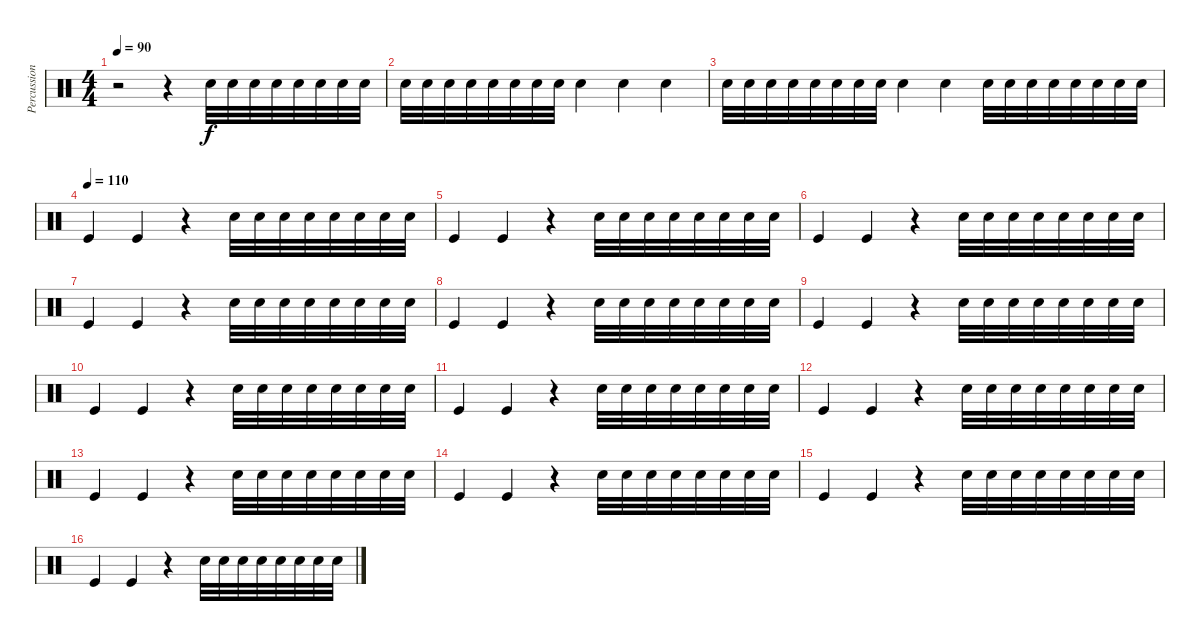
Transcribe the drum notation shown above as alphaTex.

\track ("Percussions" "Percussion") {instrument percussion}
\staff {score}
\articulation defaults
\ts (4 4)
\tempo 90
\clef neutral
\ks c
r.2{dy f} r.4 "Snare (hit) 2".32 "Snare (hit) 2".32 "Snare (hit) 2".32 "Snare (hit) 2".32 "Snare (hit) 2".32 "Snare (hit) 2".32 "Snare (hit) 2".32 "Snare (hit) 2".32 |
"Snare (hit) 2".32 "Snare (hit) 2".32 "Snare (hit) 2".32 "Snare (hit) 2".32 "Snare (hit) 2".32 "Snare (hit) 2".32 "Snare (hit) 2".32 "Snare (hit) 2".32 "Snare (hit) 2".4 "Snare (hit) 2".4 "Snare (hit) 2".4 |
"Snare (hit) 2".32 "Snare (hit) 2".32 "Snare (hit) 2".32 "Snare (hit) 2".32 "Snare (hit) 2".32 "Snare (hit) 2".32 "Snare (hit) 2".32 "Snare (hit) 2".32 "Snare (hit) 2".4 "Snare (hit) 2".4 "Snare (hit) 2".32 "Snare (hit) 2".32 "Snare (hit) 2".32 "Snare (hit) 2".32 "Snare (hit) 2".32 "Snare (hit) 2".32 "Snare (hit) 2".32 "Snare (hit) 2".32 |
\tempo (110)
"Kick (hit)".4 "Kick (hit)".4 r.4 "Snare (hit) 2".32 "Snare (hit) 2".32 "Snare (hit) 2".32 "Snare (hit) 2".32 "Snare (hit) 2".32 "Snare (hit) 2".32 "Snare (hit) 2".32 "Snare (hit) 2".32 |
"Kick (hit)".4 "Kick (hit)".4 r.4 "Snare (hit) 2".32 "Snare (hit) 2".32 "Snare (hit) 2".32 "Snare (hit) 2".32 "Snare (hit) 2".32 "Snare (hit) 2".32 "Snare (hit) 2".32 "Snare (hit) 2".32 |
"Kick (hit)".4 "Kick (hit)".4 r.4 "Snare (hit) 2".32 "Snare (hit) 2".32 "Snare (hit) 2".32 "Snare (hit) 2".32 "Snare (hit) 2".32 "Snare (hit) 2".32 "Snare (hit) 2".32 "Snare (hit) 2".32 |
"Kick (hit)".4 "Kick (hit)".4 r.4 "Snare (hit) 2".32 "Snare (hit) 2".32 "Snare (hit) 2".32 "Snare (hit) 2".32 "Snare (hit) 2".32 "Snare (hit) 2".32 "Snare (hit) 2".32 "Snare (hit) 2".32 |
"Kick (hit)".4 "Kick (hit)".4 r.4 "Snare (hit) 2".32 "Snare (hit) 2".32 "Snare (hit) 2".32 "Snare (hit) 2".32 "Snare (hit) 2".32 "Snare (hit) 2".32 "Snare (hit) 2".32 "Snare (hit) 2".32 |
"Kick (hit)".4 "Kick (hit)".4 r.4 "Snare (hit) 2".32 "Snare (hit) 2".32 "Snare (hit) 2".32 "Snare (hit) 2".32 "Snare (hit) 2".32 "Snare (hit) 2".32 "Snare (hit) 2".32 "Snare (hit) 2".32 |
"Kick (hit)".4 "Kick (hit)".4 r.4 "Snare (hit) 2".32 "Snare (hit) 2".32 "Snare (hit) 2".32 "Snare (hit) 2".32 "Snare (hit) 2".32 "Snare (hit) 2".32 "Snare (hit) 2".32 "Snare (hit) 2".32 |
"Kick (hit)".4 "Kick (hit)".4 r.4 "Snare (hit) 2".32 "Snare (hit) 2".32 "Snare (hit) 2".32 "Snare (hit) 2".32 "Snare (hit) 2".32 "Snare (hit) 2".32 "Snare (hit) 2".32 "Snare (hit) 2".32 |
"Kick (hit)".4 "Kick (hit)".4 r.4 "Snare (hit) 2".32 "Snare (hit) 2".32 "Snare (hit) 2".32 "Snare (hit) 2".32 "Snare (hit) 2".32 "Snare (hit) 2".32 "Snare (hit) 2".32 "Snare (hit) 2".32 |
"Kick (hit)".4 "Kick (hit)".4 r.4 "Snare (hit) 2".32 "Snare (hit) 2".32 "Snare (hit) 2".32 "Snare (hit) 2".32 "Snare (hit) 2".32 "Snare (hit) 2".32 "Snare (hit) 2".32 "Snare (hit) 2".32 |
"Kick (hit)".4 "Kick (hit)".4 r.4 "Snare (hit) 2".32 "Snare (hit) 2".32 "Snare (hit) 2".32 "Snare (hit) 2".32 "Snare (hit) 2".32 "Snare (hit) 2".32 "Snare (hit) 2".32 "Snare (hit) 2".32 |
"Kick (hit)".4 "Kick (hit)".4 r.4 "Snare (hit) 2".32 "Snare (hit) 2".32 "Snare (hit) 2".32 "Snare (hit) 2".32 "Snare (hit) 2".32 "Snare (hit) 2".32 "Snare (hit) 2".32 "Snare (hit) 2".32 |
"Kick (hit)".4 "Kick (hit)".4 r.4 "Snare (hit) 2".32 "Snare (hit) 2".32 "Snare (hit) 2".32 "Snare (hit) 2".32 "Snare (hit) 2".32 "Snare (hit) 2".32 "Snare (hit) 2".32 "Snare (hit) 2".32
